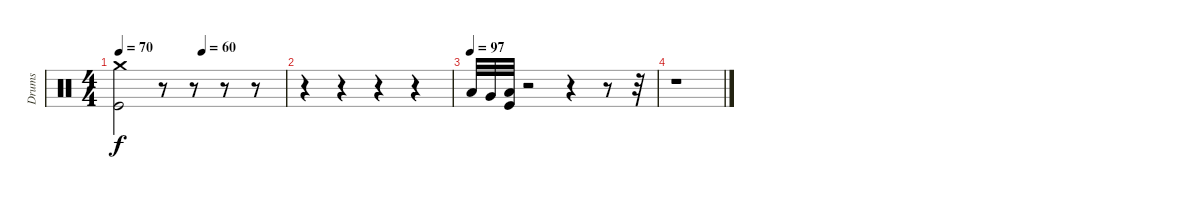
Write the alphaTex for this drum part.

\track ("Drums" "Drums") {instrument percussion}
\staff {score}
\articulation defaults
\ts (4 4)
\tempo 70
\tempo (60 0.5)
\clef neutral
\ks c
("Crash medium (hit)" "Kick (hit)").2{dy f} r.8 r.8 r.8 r.8 |
r.4 r.4 r.4 r.4 |
\tempo (97)
"Low Floor Tom (hit)".32 "Very Low Tom (hit)".32 ("Low Floor Tom (hit)" "Kick (hit)").32 r.2 r.4 r.8 r.32 |
r.1
